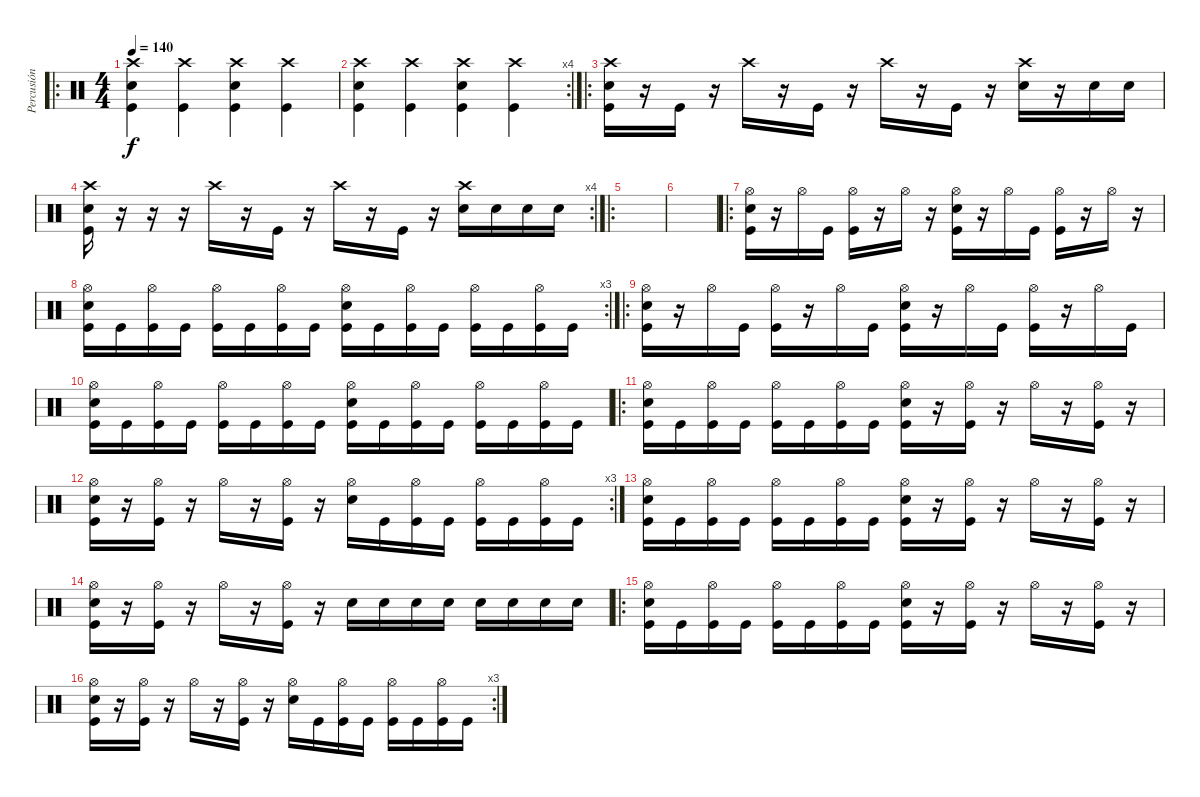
\track ("Percusión" "Percusión") {instrument percussion}
\staff {score}
\articulation defaults
\ro
\ts (4 4)
\tempo 140
\clef neutral
\ks c
("Crash high (hit)" "Snare (hit) 2" "Kick (hit)").4{dy f} ("Crash high (hit)" "Kick (hit)").4 ("Crash high (hit)" "Snare (hit) 2" "Kick (hit)").4 ("Crash high (hit)" "Kick (hit)").4 |
\rc 4
("Crash high (hit)" "Snare (hit) 2" "Kick (hit)").4 ("Crash high (hit)" "Kick (hit)").4 ("Crash high (hit)" "Snare (hit) 2" "Kick (hit)").4 ("Crash high (hit)" "Kick (hit)").4 |
\ro
("Crash high (hit)" "Snare (hit) 2" "Kick (hit)").16 r.16 "Kick (hit)".16 r.16 "Crash high (hit)".16 r.16 "Kick (hit)".16 r.16 "Crash high (hit)".16 r.16 "Kick (hit)".16 r.16 ("Crash high (hit)" "Snare (hit) 2").16 r.16 "Snare (hit) 2".16 "Snare (hit) 2".16 |
\rc 4
("Crash high (hit)" "Snare (hit) 2" "Kick (hit)").16 r.16 r.16 r.16 "Crash high (hit)".16 r.16 "Kick (hit)".16 r.16 "Crash high (hit)".16 r.16 "Kick (hit)".16 r.16 ("Crash high (hit)" "Snare (hit) 2").16 "Snare (hit) 2".16 "Snare (hit) 2".16 "Snare (hit) 2".16 |
\ro
|
|
\ro
("Hi-Hat (open)" "Snare (hit) 2" "Kick (hit)").16 r.16 "Hi-Hat (open)".16 "Kick (hit)".16 ("Hi-Hat (open)" "Kick (hit)").16 r.16 "Hi-Hat (open)".16 r.16 ("Hi-Hat (open)" "Snare (hit) 2" "Kick (hit)").16 r.16 "Hi-Hat (open)".16 "Kick (hit)".16 ("Hi-Hat (open)" "Kick (hit)").16 r.16 "Hi-Hat (open)".16 r.16 |
\rc 3
("Hi-Hat (open)" "Snare (hit) 2" "Kick (hit)").16 "Kick (hit)".16 ("Hi-Hat (open)" "Kick (hit)").16 "Kick (hit)".16 ("Hi-Hat (open)" "Kick (hit)").16 "Kick (hit)".16 ("Hi-Hat (open)" "Kick (hit)").16 "Kick (hit)".16 ("Hi-Hat (open)" "Snare (hit) 2" "Kick (hit)").16 "Kick (hit)".16 ("Hi-Hat (open)" "Kick (hit)").16 "Kick (hit)".16 ("Hi-Hat (open)" "Kick (hit)").16 "Kick (hit)".16 ("Hi-Hat (open)" "Kick (hit)").16 "Kick (hit)".16 |
\ro
("Hi-Hat (open)" "Snare (hit) 2" "Kick (hit)").16 r.16 "Hi-Hat (open)".16 "Kick (hit)".16 ("Hi-Hat (open)" "Kick (hit)").16 r.16 "Hi-Hat (open)".16 "Kick (hit)".16 ("Hi-Hat (open)" "Snare (hit) 2" "Kick (hit)").16 r.16 "Hi-Hat (open)".16 "Kick (hit)".16 ("Hi-Hat (open)" "Kick (hit)").16 r.16 "Hi-Hat (open)".16 "Kick (hit)".16 |
("Hi-Hat (open)" "Snare (hit) 2" "Kick (hit)").16 "Kick (hit)".16 ("Hi-Hat (open)" "Kick (hit)").16 "Kick (hit)".16 ("Hi-Hat (open)" "Kick (hit)").16 "Kick (hit)".16 ("Hi-Hat (open)" "Kick (hit)").16 "Kick (hit)".16 ("Hi-Hat (open)" "Snare (hit) 2" "Kick (hit)").16 "Kick (hit)".16 ("Hi-Hat (open)" "Kick (hit)").16 "Kick (hit)".16 ("Hi-Hat (open)" "Kick (hit)").16 "Kick (hit)".16 ("Hi-Hat (open)" "Kick (hit)").16 "Kick (hit)".16 |
\ro
("Hi-Hat (open)" "Snare (hit) 2" "Kick (hit)").16 "Kick (hit)".16 ("Hi-Hat (open)" "Kick (hit)").16 "Kick (hit)".16 ("Hi-Hat (open)" "Kick (hit)").16 "Kick (hit)".16 ("Hi-Hat (open)" "Kick (hit)").16 "Kick (hit)".16 ("Hi-Hat (open)" "Snare (hit) 2" "Kick (hit)").16 r.16 ("Hi-Hat (open)" "Kick (hit)").16 r.16 "Hi-Hat (open)".16 r.16 ("Hi-Hat (open)" "Kick (hit)").16 r.16 |
\rc 3
("Hi-Hat (open)" "Snare (hit) 2" "Kick (hit)").16 r.16 ("Hi-Hat (open)" "Kick (hit)").16 r.16 "Hi-Hat (open)".16 r.16 ("Hi-Hat (open)" "Kick (hit)").16 r.16 ("Hi-Hat (open)" "Snare (hit) 2").16 "Kick (hit)".16 ("Hi-Hat (open)" "Kick (hit)").16 "Kick (hit)".16 ("Hi-Hat (open)" "Kick (hit)").16 "Kick (hit)".16 ("Hi-Hat (open)" "Kick (hit)").16 "Kick (hit)".16 |
("Hi-Hat (open)" "Snare (hit) 2" "Kick (hit)").16 "Kick (hit)".16 ("Hi-Hat (open)" "Kick (hit)").16 "Kick (hit)".16 ("Hi-Hat (open)" "Kick (hit)").16 "Kick (hit)".16 ("Hi-Hat (open)" "Kick (hit)").16 "Kick (hit)".16 ("Hi-Hat (open)" "Snare (hit) 2" "Kick (hit)").16 r.16 ("Hi-Hat (open)" "Kick (hit)").16 r.16 "Hi-Hat (open)".16 r.16 ("Hi-Hat (open)" "Kick (hit)").16 r.16 |
("Hi-Hat (open)" "Snare (hit) 2" "Kick (hit)").16 r.16 ("Hi-Hat (open)" "Kick (hit)").16 r.16 "Hi-Hat (open)".16 r.16 ("Hi-Hat (open)" "Kick (hit)").16 r.16 "Snare (hit) 2".16 "Snare (hit) 2".16 "Snare (hit) 2".16 "Snare (hit) 2".16 "Snare (hit) 2".16 "Snare (hit) 2".16 "Snare (hit) 2".16 "Snare (hit) 2".16 |
\ro
("Hi-Hat (open)" "Snare (hit) 2" "Kick (hit)").16 "Kick (hit)".16 ("Hi-Hat (open)" "Kick (hit)").16 "Kick (hit)".16 ("Hi-Hat (open)" "Kick (hit)").16 "Kick (hit)".16 ("Hi-Hat (open)" "Kick (hit)").16 "Kick (hit)".16 ("Hi-Hat (open)" "Snare (hit) 2" "Kick (hit)").16 r.16 ("Hi-Hat (open)" "Kick (hit)").16 r.16 "Hi-Hat (open)".16 r.16 ("Hi-Hat (open)" "Kick (hit)").16 r.16 |
\rc 3
("Hi-Hat (open)" "Snare (hit) 2" "Kick (hit)").16 r.16 ("Hi-Hat (open)" "Kick (hit)").16 r.16 "Hi-Hat (open)".16 r.16 ("Hi-Hat (open)" "Kick (hit)").16 r.16 ("Hi-Hat (open)" "Snare (hit) 2").16 "Kick (hit)".16 ("Hi-Hat (open)" "Kick (hit)").16 "Kick (hit)".16 ("Hi-Hat (open)" "Kick (hit)").16 "Kick (hit)".16 ("Hi-Hat (open)" "Kick (hit)").16 "Kick (hit)".16
